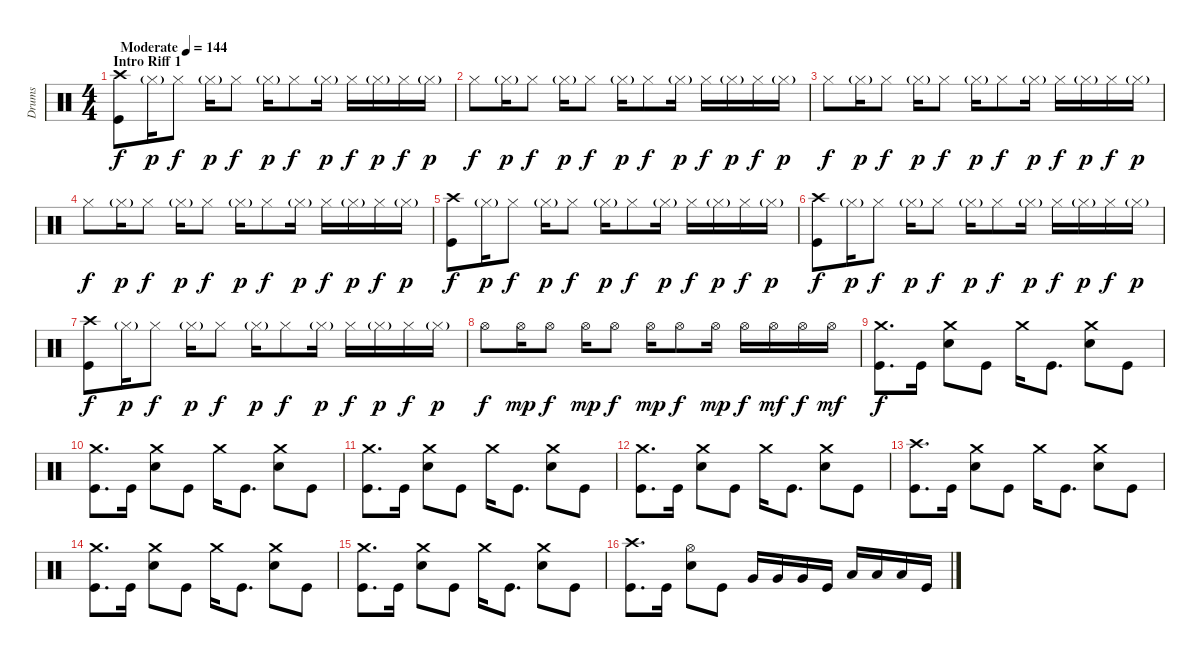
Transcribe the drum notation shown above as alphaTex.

\track ("Drums" "Drums") {instrument percussion}
\staff {score}
\articulation defaults
\ts (4 4)
\section ("" "Intro Riff 1")
\tempo (144 "Moderate")
\clef neutral
\ks c
("Crash high (hit)" "Kick (hit)").8{dy f} "Hi-Hat (closed)"{g}.16{dy p} "Hi-Hat (closed)".8{dy f} "Hi-Hat (closed)"{g}.16{dy p} "Hi-Hat (closed)".8{dy f} "Hi-Hat (closed)"{g}.16{dy p} "Hi-Hat (closed)".8{dy f} "Hi-Hat (closed)"{g}.16{dy p} "Hi-Hat (closed)".16{dy f} "Hi-Hat (closed)"{g}.16{dy p} "Hi-Hat (closed)".16{dy f} "Hi-Hat (closed)"{g}.16{dy p} |
"Hi-Hat (closed)".8{dy f} "Hi-Hat (closed)"{g}.16{dy p} "Hi-Hat (closed)".8{dy f} "Hi-Hat (closed)"{g}.16{dy p} "Hi-Hat (closed)".8{dy f} "Hi-Hat (closed)"{g}.16{dy p} "Hi-Hat (closed)".8{dy f} "Hi-Hat (closed)"{g}.16{dy p} "Hi-Hat (closed)".16{dy f} "Hi-Hat (closed)"{g}.16{dy p} "Hi-Hat (closed)".16{dy f} "Hi-Hat (closed)"{g}.16{dy p} |
"Hi-Hat (closed)".8{dy f} "Hi-Hat (closed)"{g}.16{dy p} "Hi-Hat (closed)".8{dy f} "Hi-Hat (closed)"{g}.16{dy p} "Hi-Hat (closed)".8{dy f} "Hi-Hat (closed)"{g}.16{dy p} "Hi-Hat (closed)".8{dy f} "Hi-Hat (closed)"{g}.16{dy p} "Hi-Hat (closed)".16{dy f} "Hi-Hat (closed)"{g}.16{dy p} "Hi-Hat (closed)".16{dy f} "Hi-Hat (closed)"{g}.16{dy p} |
"Hi-Hat (closed)".8{dy f} "Hi-Hat (closed)"{g}.16{dy p} "Hi-Hat (closed)".8{dy f} "Hi-Hat (closed)"{g}.16{dy p} "Hi-Hat (closed)".8{dy f} "Hi-Hat (closed)"{g}.16{dy p} "Hi-Hat (closed)".8{dy f} "Hi-Hat (closed)"{g}.16{dy p} "Hi-Hat (closed)".16{dy f} "Hi-Hat (closed)"{g}.16{dy p} "Hi-Hat (closed)".16{dy f} "Hi-Hat (closed)"{g}.16{dy p} |
("Crash high (hit)" "Kick (hit)").8{dy f} "Hi-Hat (closed)"{g}.16{dy p} "Hi-Hat (closed)".8{dy f} "Hi-Hat (closed)"{g}.16{dy p} "Hi-Hat (closed)".8{dy f} "Hi-Hat (closed)"{g}.16{dy p} "Hi-Hat (closed)".8{dy f} "Hi-Hat (closed)"{g}.16{dy p} "Hi-Hat (closed)".16{dy f} "Hi-Hat (closed)"{g}.16{dy p} "Hi-Hat (closed)".16{dy f} "Hi-Hat (closed)"{g}.16{dy p} |
("Crash high (hit)" "Kick (hit)").8{dy f} "Hi-Hat (closed)"{g}.16{dy p} "Hi-Hat (closed)".8{dy f} "Hi-Hat (closed)"{g}.16{dy p} "Hi-Hat (closed)".8{dy f} "Hi-Hat (closed)"{g}.16{dy p} "Hi-Hat (closed)".8{dy f} "Hi-Hat (closed)"{g}.16{dy p} "Hi-Hat (closed)".16{dy f} "Hi-Hat (closed)"{g}.16{dy p} "Hi-Hat (closed)".16{dy f} "Hi-Hat (closed)"{g}.16{dy p} |
("Crash high (hit)" "Kick (hit)").8{dy f} "Hi-Hat (closed)"{g}.16{dy p} "Hi-Hat (closed)".8{dy f} "Hi-Hat (closed)"{g}.16{dy p} "Hi-Hat (closed)".8{dy f} "Hi-Hat (closed)"{g}.16{dy p} "Hi-Hat (closed)".8{dy f} "Hi-Hat (closed)"{g}.16{dy p} "Hi-Hat (closed)".16{dy f} "Hi-Hat (closed)"{g}.16{dy p} "Hi-Hat (closed)".16{dy f} "Hi-Hat (closed)"{g}.16{dy p} |
"Hi-Hat (open)".8{dy f} "Hi-Hat (open)".16{dy mp} "Hi-Hat (open)".8{dy f} "Hi-Hat (open)".16{dy mp} "Hi-Hat (open)".8{dy f} "Hi-Hat (open)".16{dy mp} "Hi-Hat (open)".8{dy f} "Hi-Hat (open)".16{dy mp} "Hi-Hat (open)".16{dy f} "Hi-Hat (open)".16{dy mf} "Hi-Hat (open)".16{dy f} "Hi-Hat (open)".16{dy mf} |
("Crash medium (hit)" "Kick (hit)").8{d dy f} "Kick (hit)".16 ("Crash medium (hit)" "Electric Snare (hit)").8 "Kick (hit)".8 "Crash medium (hit)".16 "Kick (hit)".8{d} ("Crash medium (hit)" "Electric Snare (hit)").8 "Kick (hit)".8 |
("Crash medium (hit)" "Kick (hit)").8{d} "Kick (hit)".16 ("Crash medium (hit)" "Electric Snare (hit)").8 "Kick (hit)".8 "Crash medium (hit)".16 "Kick (hit)".8{d} ("Crash medium (hit)" "Electric Snare (hit)").8 "Kick (hit)".8 |
("Crash medium (hit)" "Kick (hit)").8{d} "Kick (hit)".16 ("Crash medium (hit)" "Electric Snare (hit)").8 "Kick (hit)".8 "Crash medium (hit)".16 "Kick (hit)".8{d} ("Crash medium (hit)" "Electric Snare (hit)").8 "Kick (hit)".8 |
("Crash medium (hit)" "Kick (hit)").8{d} "Kick (hit)".16 ("Crash medium (hit)" "Electric Snare (hit)").8 "Kick (hit)".8 "Crash medium (hit)".16 "Kick (hit)".8{d} ("Crash medium (hit)" "Electric Snare (hit)").8 "Kick (hit)".8 |
("Crash high (hit)" "Kick (hit)").8{d} "Kick (hit)".16 ("Crash medium (hit)" "Electric Snare (hit)").8 "Kick (hit)".8 "Crash medium (hit)".16 "Kick (hit)".8{d} ("Crash medium (hit)" "Electric Snare (hit)").8 "Kick (hit)".8 |
("Crash medium (hit)" "Kick (hit)").8{d} "Kick (hit)".16 ("Crash medium (hit)" "Electric Snare (hit)").8 "Kick (hit)".8 "Crash medium (hit)".16 "Kick (hit)".8{d} ("Crash medium (hit)" "Electric Snare (hit)").8 "Kick (hit)".8 |
("Crash medium (hit)" "Kick (hit)").8{d} "Kick (hit)".16 ("Crash medium (hit)" "Electric Snare (hit)").8 "Kick (hit)".8 "Crash medium (hit)".16 "Kick (hit)".8{d} ("Crash medium (hit)" "Electric Snare (hit)").8 "Kick (hit)".8 |
("Crash high (hit)" "Kick (hit)").8{d} "Kick (hit)".16 ("Hi-Hat (open)" "Electric Snare (hit)").8 "Kick (hit)".8 "Very Low Tom (hit)".16 "Very Low Tom (hit)".16 "Very Low Tom (hit)".16 "Kick (hit)".16 "Low Floor Tom (hit)".16 "Low Floor Tom (hit)".16 "Low Floor Tom (hit)".16 "Kick (hit)".16
